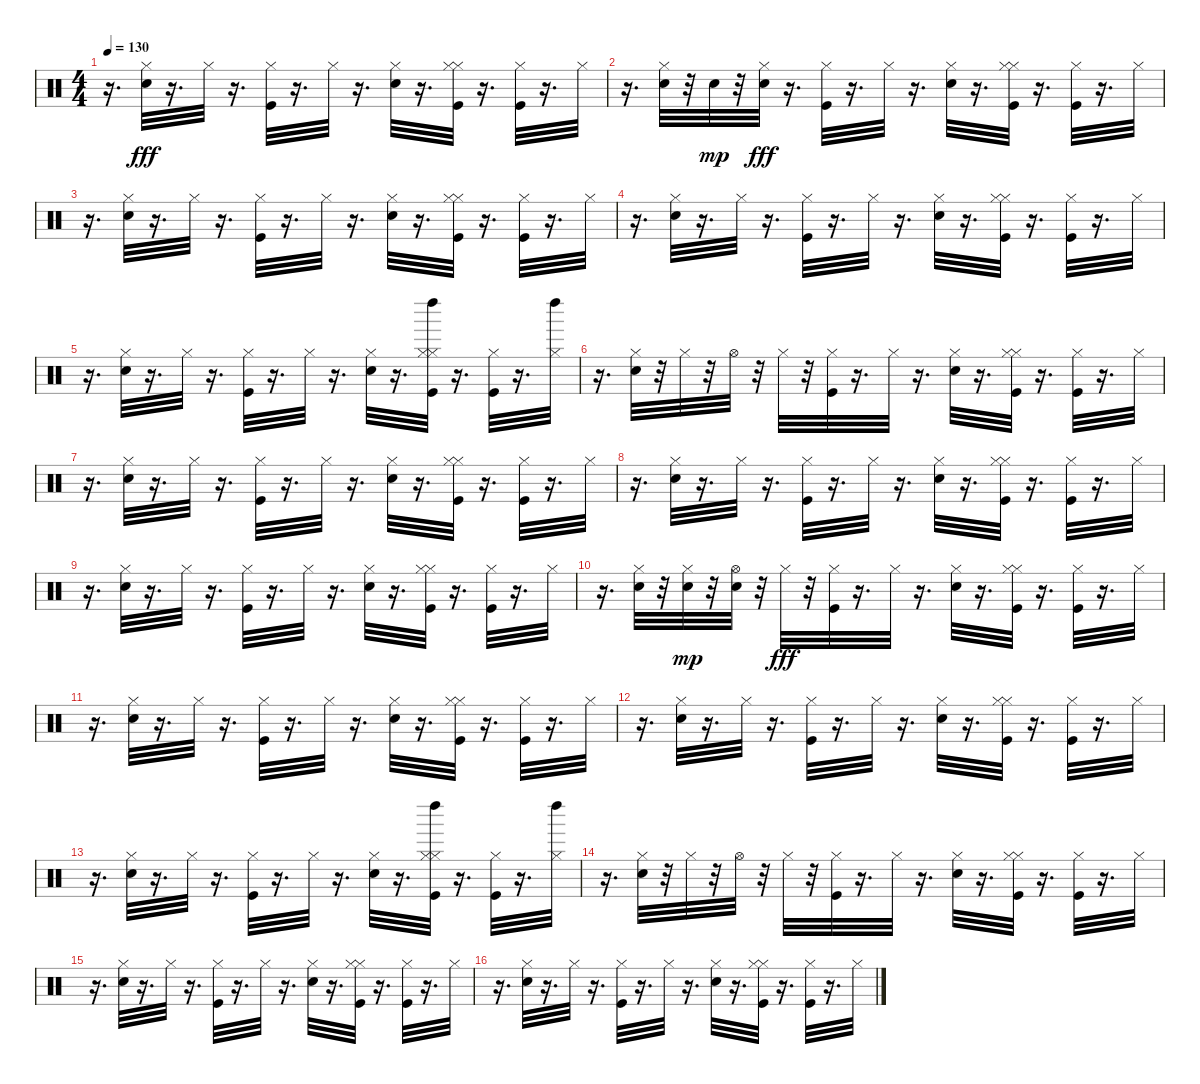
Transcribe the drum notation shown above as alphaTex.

\track "" {instrument percussion}
\staff {score}
\articulation defaults
\ts (4 4)
\tempo 130
\clef neutral
\ks c
r.16{d dy fff} ("Hi-Hat (closed)" "Electric Snare (hit)").32 r.16{d} "Hi-Hat (closed)".32 r.16{d} ("Hi-Hat (closed)" "Kick (hit)").32 r.16{d} "Hi-Hat (closed)".32 r.16{d} ("Hi-Hat (closed)" "Electric Snare (hit)").32 r.16{d} ("Hi-Hat (closed)" "Hi-Hat (closed)" "Kick (hit)").32 r.16{d} ("Hi-Hat (closed)" "Kick (hit)").32 r.16{d} "Hi-Hat (closed)".32 |
r.16{d} ("Hi-Hat (closed)" "Electric Snare (hit)").32 r.32 "Snare (hit) 2".32{dy mp} r.32 ("Snare (hit) 2" "Hi-Hat (closed)").32{dy fff} r.16{d} ("Hi-Hat (closed)" "Kick (hit)").32 r.16{d} "Hi-Hat (closed)".32 r.16{d} ("Hi-Hat (closed)" "Electric Snare (hit)").32 r.16{d} ("Hi-Hat (closed)" "Hi-Hat (closed)" "Kick (hit)").32 r.16{d} ("Hi-Hat (closed)" "Kick (hit)").32 r.16{d} "Hi-Hat (closed)".32 |
r.16{d} ("Hi-Hat (closed)" "Electric Snare (hit)").32 r.16{d} "Hi-Hat (closed)".32 r.16{d} ("Hi-Hat (closed)" "Kick (hit)").32 r.16{d} "Hi-Hat (closed)".32 r.16{d} ("Hi-Hat (closed)" "Electric Snare (hit)").32 r.16{d} ("Hi-Hat (closed)" "Hi-Hat (closed)" "Kick (hit)").32 r.16{d} ("Hi-Hat (closed)" "Kick (hit)").32 r.16{d} "Hi-Hat (closed)".32 |
r.16{d} ("Hi-Hat (closed)" "Electric Snare (hit)").32 r.16{d} "Hi-Hat (closed)".32 r.16{d} ("Hi-Hat (closed)" "Kick (hit)").32 r.16{d} "Hi-Hat (closed)".32 r.16{d} ("Hi-Hat (closed)" "Electric Snare (hit)").32 r.16{d} ("Hi-Hat (closed)" "Hi-Hat (closed)" "Kick (hit)").32 r.16{d} ("Hi-Hat (closed)" "Kick (hit)").32 r.16{d} "Hi-Hat (closed)".32 |
r.16{d} ("Hi-Hat (closed)" "Electric Snare (hit)").32 r.16{d} "Hi-Hat (closed)".32 r.16{d} ("Hi-Hat (closed)" "Kick (hit)").32 r.16{d} "Hi-Hat (closed)".32 r.16{d} ("Hi-Hat (closed)" "Electric Snare (hit)").32 r.16{d} ("Hi-Hat (closed)" "Left Maraca (hit)" "Hi-Hat (closed)" "Kick (hit)").32 r.16{d} ("Hi-Hat (closed)" "Kick (hit)").32 r.16{d} ("Left Maraca (hit)" "Hi-Hat (closed)").32 |
r.16{d} ("Hi-Hat (closed)" "Electric Snare (hit)").32 r.32 "Hi-Hat (closed)".32 r.32 "Hi-Hat (open)".32 r.32 "Hi-Hat (closed)".32 r.32 ("Hi-Hat (closed)" "Kick (hit)").32 r.16{d} "Hi-Hat (closed)".32 r.16{d} ("Hi-Hat (closed)" "Electric Snare (hit)").32 r.16{d} ("Hi-Hat (closed)" "Hi-Hat (closed)" "Kick (hit)").32 r.16{d} ("Hi-Hat (closed)" "Kick (hit)").32 r.16{d} "Hi-Hat (closed)".32 |
r.16{d} ("Hi-Hat (closed)" "Electric Snare (hit)").32 r.16{d} "Hi-Hat (closed)".32 r.16{d} ("Hi-Hat (closed)" "Kick (hit)").32 r.16{d} "Hi-Hat (closed)".32 r.16{d} ("Hi-Hat (closed)" "Electric Snare (hit)").32 r.16{d} ("Hi-Hat (closed)" "Hi-Hat (closed)" "Kick (hit)").32 r.16{d} ("Hi-Hat (closed)" "Kick (hit)").32 r.16{d} "Hi-Hat (closed)".32 |
r.16{d} ("Hi-Hat (closed)" "Electric Snare (hit)").32 r.16{d} "Hi-Hat (closed)".32 r.16{d} ("Hi-Hat (closed)" "Kick (hit)").32 r.16{d} "Hi-Hat (closed)".32 r.16{d} ("Hi-Hat (closed)" "Electric Snare (hit)").32 r.16{d} ("Hi-Hat (closed)" "Hi-Hat (closed)" "Kick (hit)").32 r.16{d} ("Hi-Hat (closed)" "Kick (hit)").32 r.16{d} "Hi-Hat (closed)".32 |
r.16{d} ("Hi-Hat (closed)" "Electric Snare (hit)").32 r.16{d} "Hi-Hat (closed)".32 r.16{d} ("Hi-Hat (closed)" "Kick (hit)").32 r.16{d} "Hi-Hat (closed)".32 r.16{d} ("Hi-Hat (closed)" "Electric Snare (hit)").32 r.16{d} ("Hi-Hat (closed)" "Hi-Hat (closed)" "Kick (hit)").32 r.16{d} ("Hi-Hat (closed)" "Kick (hit)").32 r.16{d} "Hi-Hat (closed)".32 |
r.16{d} ("Hi-Hat (closed)" "Electric Snare (hit)").32 r.32 ("Hi-Hat (closed)" "Snare (hit) 2").32{dy mp} r.32 ("Hi-Hat (open)" "Snare (hit) 2").32 r.32 "Hi-Hat (closed)".32{dy fff} r.32 ("Hi-Hat (closed)" "Kick (hit)").32 r.16{d} "Hi-Hat (closed)".32 r.16{d} ("Hi-Hat (closed)" "Electric Snare (hit)").32 r.16{d} ("Hi-Hat (closed)" "Hi-Hat (closed)" "Kick (hit)").32 r.16{d} ("Hi-Hat (closed)" "Kick (hit)").32 r.16{d} "Hi-Hat (closed)".32 |
r.16{d} ("Hi-Hat (closed)" "Electric Snare (hit)").32 r.16{d} "Hi-Hat (closed)".32 r.16{d} ("Hi-Hat (closed)" "Kick (hit)").32 r.16{d} "Hi-Hat (closed)".32 r.16{d} ("Hi-Hat (closed)" "Electric Snare (hit)").32 r.16{d} ("Hi-Hat (closed)" "Hi-Hat (closed)" "Kick (hit)").32 r.16{d} ("Hi-Hat (closed)" "Kick (hit)").32 r.16{d} "Hi-Hat (closed)".32 |
r.16{d} ("Hi-Hat (closed)" "Electric Snare (hit)").32 r.16{d} "Hi-Hat (closed)".32 r.16{d} ("Hi-Hat (closed)" "Kick (hit)").32 r.16{d} "Hi-Hat (closed)".32 r.16{d} ("Hi-Hat (closed)" "Electric Snare (hit)").32 r.16{d} ("Hi-Hat (closed)" "Hi-Hat (closed)" "Kick (hit)").32 r.16{d} ("Hi-Hat (closed)" "Kick (hit)").32 r.16{d} "Hi-Hat (closed)".32 |
r.16{d} ("Hi-Hat (closed)" "Electric Snare (hit)").32 r.16{d} "Hi-Hat (closed)".32 r.16{d} ("Hi-Hat (closed)" "Kick (hit)").32 r.16{d} "Hi-Hat (closed)".32 r.16{d} ("Hi-Hat (closed)" "Electric Snare (hit)").32 r.16{d} ("Hi-Hat (closed)" "Left Maraca (hit)" "Hi-Hat (closed)" "Kick (hit)").32 r.16{d} ("Hi-Hat (closed)" "Kick (hit)").32 r.16{d} ("Left Maraca (hit)" "Hi-Hat (closed)").32 |
r.16{d} ("Hi-Hat (closed)" "Electric Snare (hit)").32 r.32 "Hi-Hat (closed)".32 r.32 "Hi-Hat (open)".32 r.32 "Hi-Hat (closed)".32 r.32 ("Hi-Hat (closed)" "Kick (hit)").32 r.16{d} "Hi-Hat (closed)".32 r.16{d} ("Hi-Hat (closed)" "Electric Snare (hit)").32 r.16{d} ("Hi-Hat (closed)" "Hi-Hat (closed)" "Kick (hit)").32 r.16{d} ("Hi-Hat (closed)" "Kick (hit)").32 r.16{d} "Hi-Hat (closed)".32 |
r.16{d} ("Hi-Hat (closed)" "Electric Snare (hit)").32 r.16{d} "Hi-Hat (closed)".32 r.16{d} ("Hi-Hat (closed)" "Kick (hit)").32 r.16{d} "Hi-Hat (closed)".32 r.16{d} ("Hi-Hat (closed)" "Electric Snare (hit)").32 r.16{d} ("Hi-Hat (closed)" "Hi-Hat (closed)" "Kick (hit)").32 r.16{d} ("Hi-Hat (closed)" "Kick (hit)").32 r.16{d} "Hi-Hat (closed)".32 |
r.16{d} ("Hi-Hat (closed)" "Electric Snare (hit)").32 r.16{d} "Hi-Hat (closed)".32 r.16{d} ("Hi-Hat (closed)" "Kick (hit)").32 r.16{d} "Hi-Hat (closed)".32 r.16{d} ("Hi-Hat (closed)" "Electric Snare (hit)").32 r.16{d} ("Hi-Hat (closed)" "Hi-Hat (closed)" "Kick (hit)").32 r.16{d} ("Hi-Hat (closed)" "Kick (hit)").32 r.16{d} "Hi-Hat (closed)".32
